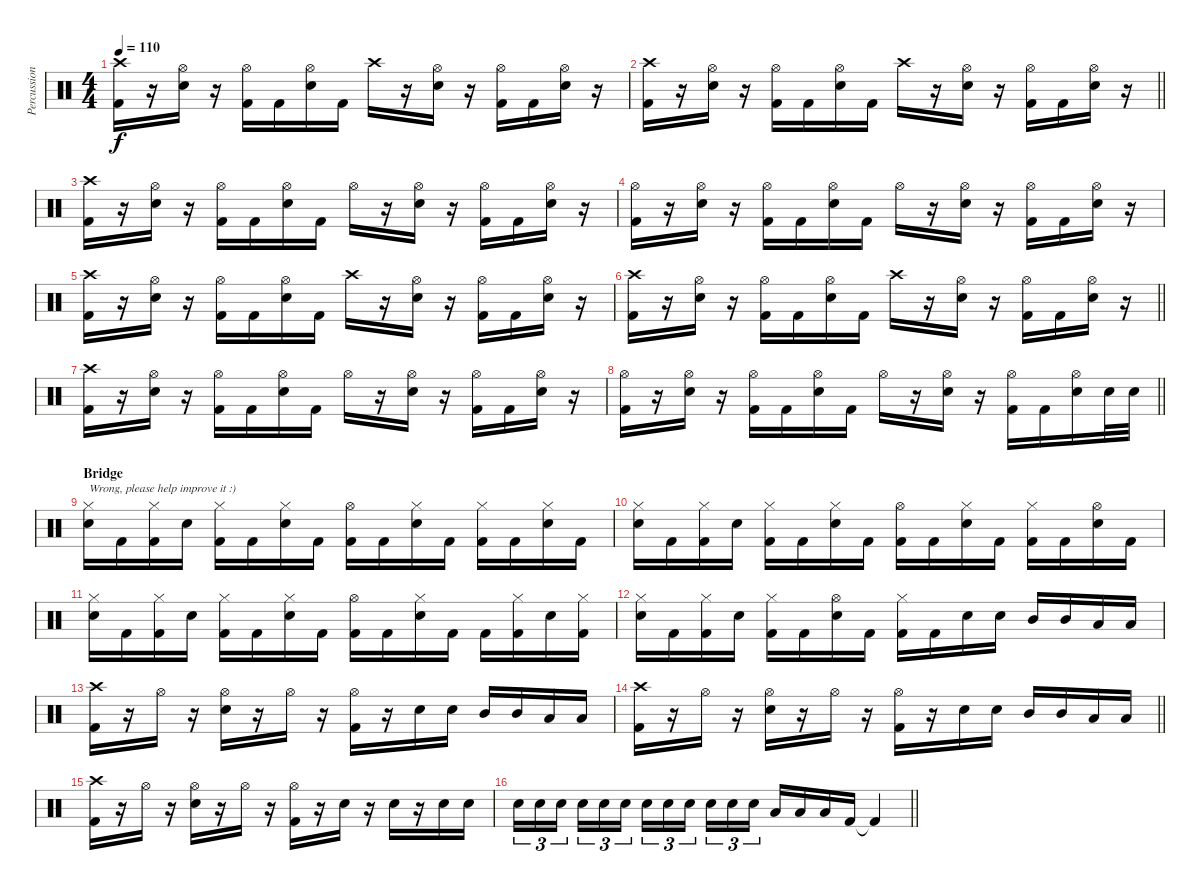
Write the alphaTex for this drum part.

\track ("Percussion" "Percussion") {instrument percussion}
\staff {score}
\articulation defaults
\ts (4 4)
\tempo 110
\clef neutral
\ks c
("Crash high (hit)" "Kick (hit) 2").16{dy f} r.16 ("Hi-Hat (open)" "Snare (hit) 2").16 r.16 ("Hi-Hat (open)" "Kick (hit) 2").16 "Kick (hit) 2".16 ("Hi-Hat (open)" "Snare (hit) 2").16 "Kick (hit) 2".16 "Crash high (hit)".16 r.16 ("Hi-Hat (open)" "Snare (hit) 2").16 r.16 ("Hi-Hat (open)" "Kick (hit) 2").16 "Kick (hit) 2".16 ("Hi-Hat (open)" "Snare (hit) 2").16 r.16 |
\barLineRight lightlight
("Crash high (hit)" "Kick (hit) 2").16 r.16 ("Hi-Hat (open)" "Snare (hit) 2").16 r.16 ("Hi-Hat (open)" "Kick (hit) 2").16 "Kick (hit) 2".16 ("Hi-Hat (open)" "Snare (hit) 2").16 "Kick (hit) 2".16 "Crash high (hit)".16 r.16 ("Hi-Hat (open)" "Snare (hit) 2").16 r.16 ("Hi-Hat (open)" "Kick (hit) 2").16 "Kick (hit) 2".16 ("Hi-Hat (open)" "Snare (hit) 2").16 r.16 |
("Crash high (hit)" "Kick (hit) 2").16 r.16 ("Hi-Hat (open)" "Snare (hit) 2").16 r.16 ("Hi-Hat (open)" "Kick (hit) 2").16 "Kick (hit) 2".16 ("Hi-Hat (open)" "Snare (hit) 2").16 "Kick (hit) 2".16 "Hi-Hat (open)".16 r.16 ("Hi-Hat (open)" "Snare (hit) 2").16 r.16 ("Hi-Hat (open)" "Kick (hit) 2").16 "Kick (hit) 2".16 ("Hi-Hat (open)" "Snare (hit) 2").16 r.16 |
("Hi-Hat (open)" "Kick (hit) 2").16 r.16 ("Hi-Hat (open)" "Snare (hit) 2").16 r.16 ("Hi-Hat (open)" "Kick (hit) 2").16 "Kick (hit) 2".16 ("Hi-Hat (open)" "Snare (hit) 2").16 "Kick (hit) 2".16 "Hi-Hat (open)".16 r.16 ("Hi-Hat (open)" "Snare (hit) 2").16 r.16 ("Hi-Hat (open)" "Kick (hit) 2").16 "Kick (hit) 2".16 ("Hi-Hat (open)" "Snare (hit) 2").16 r.16 |
("Crash high (hit)" "Kick (hit) 2").16 r.16 ("Hi-Hat (open)" "Snare (hit) 2").16 r.16 ("Hi-Hat (open)" "Kick (hit) 2").16 "Kick (hit) 2".16 ("Hi-Hat (open)" "Snare (hit) 2").16 "Kick (hit) 2".16 "Crash high (hit)".16 r.16 ("Hi-Hat (open)" "Snare (hit) 2").16 r.16 ("Hi-Hat (open)" "Kick (hit) 2").16 "Kick (hit) 2".16 ("Hi-Hat (open)" "Snare (hit) 2").16 r.16 |
\barLineRight lightlight
("Crash high (hit)" "Kick (hit) 2").16 r.16 ("Hi-Hat (open)" "Snare (hit) 2").16 r.16 ("Hi-Hat (open)" "Kick (hit) 2").16 "Kick (hit) 2".16 ("Hi-Hat (open)" "Snare (hit) 2").16 "Kick (hit) 2".16 "Crash high (hit)".16 r.16 ("Hi-Hat (open)" "Snare (hit) 2").16 r.16 ("Hi-Hat (open)" "Kick (hit) 2").16 "Kick (hit) 2".16 ("Hi-Hat (open)" "Snare (hit) 2").16 r.16 |
("Crash high (hit)" "Kick (hit) 2").16 r.16 ("Hi-Hat (open)" "Snare (hit) 2").16 r.16 ("Hi-Hat (open)" "Kick (hit) 2").16 "Kick (hit) 2".16 ("Hi-Hat (open)" "Snare (hit) 2").16 "Kick (hit) 2".16 "Hi-Hat (open)".16 r.16 ("Hi-Hat (open)" "Snare (hit) 2").16 r.16 ("Hi-Hat (open)" "Kick (hit) 2").16 "Kick (hit) 2".16 ("Hi-Hat (open)" "Snare (hit) 2").16 r.16 |
\barLineRight lightlight
("Hi-Hat (open)" "Kick (hit) 2").16 r.16 ("Hi-Hat (open)" "Snare (hit) 2").16 r.16 ("Hi-Hat (open)" "Kick (hit) 2").16 "Kick (hit) 2".16 ("Hi-Hat (open)" "Snare (hit) 2").16 "Kick (hit) 2".16 "Hi-Hat (open)".16 r.16 ("Hi-Hat (open)" "Snare (hit) 2").16 r.16 ("Hi-Hat (open)" "Kick (hit) 2").16 "Kick (hit) 2".16 ("Hi-Hat (open)" "Snare (hit) 2").16 "Snare (hit) 2".32 "Snare (hit) 2".32 |
\section ("" "Bridge")
("Hi-Hat (closed)" "Snare (hit) 2").16{txt "Wrong, please help improve it :)"} "Kick (hit) 2".16 ("Hi-Hat (closed)" "Kick (hit) 2").16 "Snare (hit) 2".16 ("Hi-Hat (closed)" "Kick (hit) 2").16 "Kick (hit) 2".16 ("Hi-Hat (closed)" "Snare (hit) 2").16 "Kick (hit) 2".16 ("Hi-Hat (open)" "Kick (hit) 2").16 "Kick (hit) 2".16 ("Hi-Hat (closed)" "Snare (hit) 2").16 "Kick (hit) 2".16 ("Hi-Hat (closed)" "Kick (hit) 2").16 "Kick (hit) 2".16 ("Hi-Hat (closed)" "Snare (hit) 2").16 "Kick (hit) 2".16 |
("Hi-Hat (closed)" "Snare (hit) 2").16 "Kick (hit) 2".16 ("Hi-Hat (closed)" "Kick (hit) 2").16 "Snare (hit) 2".16 ("Hi-Hat (closed)" "Kick (hit) 2").16 "Kick (hit) 2".16 ("Hi-Hat (closed)" "Snare (hit) 2").16 "Kick (hit) 2".16 ("Hi-Hat (open)" "Kick (hit) 2").16 "Kick (hit) 2".16 ("Hi-Hat (closed)" "Snare (hit) 2").16 "Kick (hit) 2".16 ("Hi-Hat (closed)" "Kick (hit) 2").16 "Kick (hit) 2".16 ("Hi-Hat (open)" "Snare (hit) 2").16 "Kick (hit) 2".16 |
("Hi-Hat (closed)" "Snare (hit) 2").16 "Kick (hit) 2".16 ("Hi-Hat (closed)" "Kick (hit) 2").16 "Snare (hit) 2".16 ("Hi-Hat (closed)" "Kick (hit) 2").16 "Kick (hit) 2".16 ("Hi-Hat (closed)" "Snare (hit) 2").16 "Kick (hit) 2".16 ("Hi-Hat (open)" "Kick (hit) 2").16 "Kick (hit) 2".16 ("Hi-Hat (closed)" "Snare (hit) 2").16 "Kick (hit) 2".16 "Kick (hit) 2".16 ("Hi-Hat (closed)" "Kick (hit) 2").16 "Snare (hit) 2".16 ("Hi-Hat (closed)" "Kick (hit) 2").16 |
("Hi-Hat (closed)" "Snare (hit) 2").16 "Kick (hit) 2".16 ("Hi-Hat (closed)" "Kick (hit) 2").16 "Snare (hit) 2".16 ("Hi-Hat (closed)" "Kick (hit) 2").16 "Kick (hit) 2".16 ("Hi-Hat (open)" "Snare (hit) 2").16 "Kick (hit) 2".16 ("Hi-Hat (closed)" "Kick (hit) 2").16 "Kick (hit) 2".16 "Snare (hit) 2".16 "Snare (hit) 2".16 "Mid Tom (hit)".16 "Mid Tom (hit)".16 "Low Tom (hit)".16 "Low Tom (hit)".16 |
("Crash high (hit)" "Kick (hit) 2").16 r.16 "Hi-Hat (open)".16 r.16 ("Hi-Hat (open)" "Snare (hit) 2").16 r.16 "Hi-Hat (open)".16 r.16 ("Hi-Hat (open)" "Kick (hit) 2").16 r.16 "Snare (hit) 2".16 "Snare (hit) 2".16 "Mid Tom (hit)".16 "Mid Tom (hit)".16 "Low Tom (hit)".16 "Low Tom (hit)".16 |
\barLineRight lightlight
("Crash high (hit)" "Kick (hit) 2").16 r.16 "Hi-Hat (open)".16 r.16 ("Hi-Hat (open)" "Snare (hit) 2").16 r.16 "Hi-Hat (open)".16 r.16 ("Hi-Hat (open)" "Kick (hit) 2").16 r.16 "Snare (hit) 2".16 "Snare (hit) 2".16 "Mid Tom (hit)".16 "Mid Tom (hit)".16 "Low Tom (hit)".16 "Low Tom (hit)".16 |
("Crash high (hit)" "Kick (hit) 2").16 r.16 "Hi-Hat (open)".16 r.16 ("Hi-Hat (open)" "Snare (hit) 2").16 r.16 "Hi-Hat (open)".16 r.16 ("Hi-Hat (open)" "Kick (hit) 2").16 r.16 "Snare (hit) 2".16 r.16 "Snare (hit) 2".16 r.16 "Snare (hit) 2".16 "Snare (hit) 2".16 |
\barLineRight lightlight "Snare (hit) 2".16{tu (3 2)} "Snare (hit) 2".16{tu (3 2)} "Snare (hit) 2".16{tu (3 2) beam splitsecondary} "Snare (hit) 2".16{tu (3 2)} "Snare (hit) 2".16{tu (3 2)} "Snare (hit) 2".16{tu (3 2)} "Snare (hit) 2".16{tu (3 2)} "Snare (hit) 2".16{tu (3 2)} "Snare (hit) 2".16{tu (3 2) beam splitsecondary} "Snare (hit) 2".16{tu (3 2)} "Snare (hit) 2".16{tu (3 2)} "Snare (hit) 2".16{tu (3 2)} "Low Floor Tom (hit)".16 "Low Floor Tom (hit)".16 "Low Floor Tom (hit)".16 "Kick (hit) 2".16 "Kick (hit) 2"{t}.4
